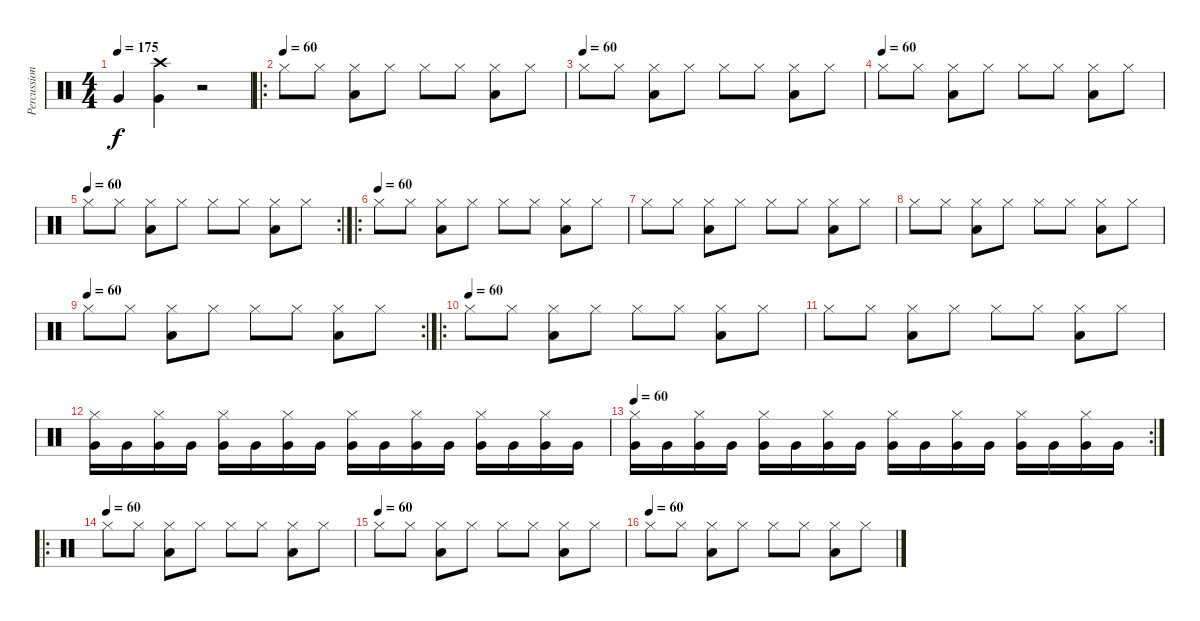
\track ("Percussions" "Percussion") {instrument percussion}
\staff {score}
\articulation defaults
\ts (4 4)
\tempo 175
\clef neutral
\ks c "Very Low Tom (hit)".4{dy f}
("Very Low Tom (hit)" "Crash high (hit)").4 r.2 |
\ro
\tempo (60)
"Hi-Hat (closed)".8 "Hi-Hat (closed)".8 ("Hi-Hat (closed)" "Low Tom (hit)").8 "Hi-Hat (closed)".8 "Hi-Hat (closed)".8 "Hi-Hat (closed)".8 ("Hi-Hat (closed)" "Low Tom (hit)").8 "Hi-Hat (closed)".8 |
\tempo (60)
"Hi-Hat (closed)".8 "Hi-Hat (closed)".8 ("Hi-Hat (closed)" "Low Tom (hit)").8 "Hi-Hat (closed)".8 "Hi-Hat (closed)".8 "Hi-Hat (closed)".8 ("Hi-Hat (closed)" "Low Tom (hit)").8 "Hi-Hat (closed)".8 |
\tempo (60)
"Hi-Hat (closed)".8 "Hi-Hat (closed)".8 ("Hi-Hat (closed)" "Low Tom (hit)").8 "Hi-Hat (closed)".8 "Hi-Hat (closed)".8 "Hi-Hat (closed)".8 ("Hi-Hat (closed)" "Low Tom (hit)").8 "Hi-Hat (closed)".8 |
\rc 2
\tempo (60)
"Hi-Hat (closed)".8 "Hi-Hat (closed)".8 ("Hi-Hat (closed)" "Low Tom (hit)").8 "Hi-Hat (closed)".8 "Hi-Hat (closed)".8 "Hi-Hat (closed)".8 ("Hi-Hat (closed)" "Low Tom (hit)").8 "Hi-Hat (closed)".8 |
\ro
\tempo (60)
"Hi-Hat (closed)".8 "Hi-Hat (closed)".8 ("Hi-Hat (closed)" "Low Tom (hit)").8 "Hi-Hat (closed)".8 "Hi-Hat (closed)".8 "Hi-Hat (closed)".8 ("Hi-Hat (closed)" "Low Tom (hit)").8 "Hi-Hat (closed)".8 |
"Hi-Hat (closed)".8 "Hi-Hat (closed)".8 ("Hi-Hat (closed)" "Low Tom (hit)").8 "Hi-Hat (closed)".8 "Hi-Hat (closed)".8 "Hi-Hat (closed)".8 ("Hi-Hat (closed)" "Low Tom (hit)").8 "Hi-Hat (closed)".8 |
"Hi-Hat (closed)".8 "Hi-Hat (closed)".8 ("Hi-Hat (closed)" "Low Tom (hit)").8 "Hi-Hat (closed)".8 "Hi-Hat (closed)".8 "Hi-Hat (closed)".8 ("Hi-Hat (closed)" "Low Tom (hit)").8 "Hi-Hat (closed)".8 |
\rc 2
\tempo (60)
"Hi-Hat (closed)".8 "Hi-Hat (closed)".8 ("Hi-Hat (closed)" "Low Tom (hit)").8 "Hi-Hat (closed)".8 "Hi-Hat (closed)".8 "Hi-Hat (closed)".8 ("Hi-Hat (closed)" "Low Tom (hit)").8 "Hi-Hat (closed)".8 |
\ro
\tempo (60)
"Hi-Hat (closed)".8 "Hi-Hat (closed)".8 ("Hi-Hat (closed)" "Low Tom (hit)").8 "Hi-Hat (closed)".8 "Hi-Hat (closed)".8 "Hi-Hat (closed)".8 ("Hi-Hat (closed)" "Low Tom (hit)").8 "Hi-Hat (closed)".8 |
"Hi-Hat (closed)".8 "Hi-Hat (closed)".8 ("Hi-Hat (closed)" "Low Tom (hit)").8 "Hi-Hat (closed)".8 "Hi-Hat (closed)".8 "Hi-Hat (closed)".8 ("Hi-Hat (closed)" "Low Tom (hit)").8 "Hi-Hat (closed)".8 |
("Hi-Hat (closed)" "Very Low Tom (hit)").16 "Very Low Tom (hit)".16 ("Hi-Hat (closed)" "Very Low Tom (hit)").16 "Very Low Tom (hit)".16 ("Hi-Hat (closed)" "Very Low Tom (hit)").16 "Very Low Tom (hit)".16 ("Hi-Hat (closed)" "Very Low Tom (hit)").16 "Very Low Tom (hit)".16 ("Hi-Hat (closed)" "Very Low Tom (hit)").16 "Very Low Tom (hit)".16 ("Hi-Hat (closed)" "Very Low Tom (hit)").16 "Very Low Tom (hit)".16 ("Hi-Hat (closed)" "Very Low Tom (hit)").16 "Very Low Tom (hit)".16 ("Hi-Hat (closed)" "Very Low Tom (hit)").16 "Very Low Tom (hit)".16 |
\rc 2
\tempo 60
("Hi-Hat (closed)" "Very Low Tom (hit)").16 "Very Low Tom (hit)".16 ("Hi-Hat (closed)" "Very Low Tom (hit)").16 "Very Low Tom (hit)".16 ("Hi-Hat (closed)" "Very Low Tom (hit)").16 "Very Low Tom (hit)".16 ("Hi-Hat (closed)" "Very Low Tom (hit)").16 "Very Low Tom (hit)".16 ("Hi-Hat (closed)" "Very Low Tom (hit)").16 "Very Low Tom (hit)".16 ("Hi-Hat (closed)" "Very Low Tom (hit)").16 "Very Low Tom (hit)".16 ("Hi-Hat (closed)" "Very Low Tom (hit)").16 "Very Low Tom (hit)".16 ("Hi-Hat (closed)" "Very Low Tom (hit)").16 "Very Low Tom (hit)".16 |
\ro
\tempo (60)
"Hi-Hat (closed)".8 "Hi-Hat (closed)".8 ("Hi-Hat (closed)" "Low Tom (hit)").8 "Hi-Hat (closed)".8 "Hi-Hat (closed)".8 "Hi-Hat (closed)".8 ("Hi-Hat (closed)" "Low Tom (hit)").8 "Hi-Hat (closed)".8 |
\tempo (60)
"Hi-Hat (closed)".8 "Hi-Hat (closed)".8 ("Hi-Hat (closed)" "Low Tom (hit)").8 "Hi-Hat (closed)".8 "Hi-Hat (closed)".8 "Hi-Hat (closed)".8 ("Hi-Hat (closed)" "Low Tom (hit)").8 "Hi-Hat (closed)".8 |
\tempo (60)
"Hi-Hat (closed)".8 "Hi-Hat (closed)".8 ("Hi-Hat (closed)" "Low Tom (hit)").8 "Hi-Hat (closed)".8 "Hi-Hat (closed)".8 "Hi-Hat (closed)".8 ("Hi-Hat (closed)" "Low Tom (hit)").8 "Hi-Hat (closed)".8
